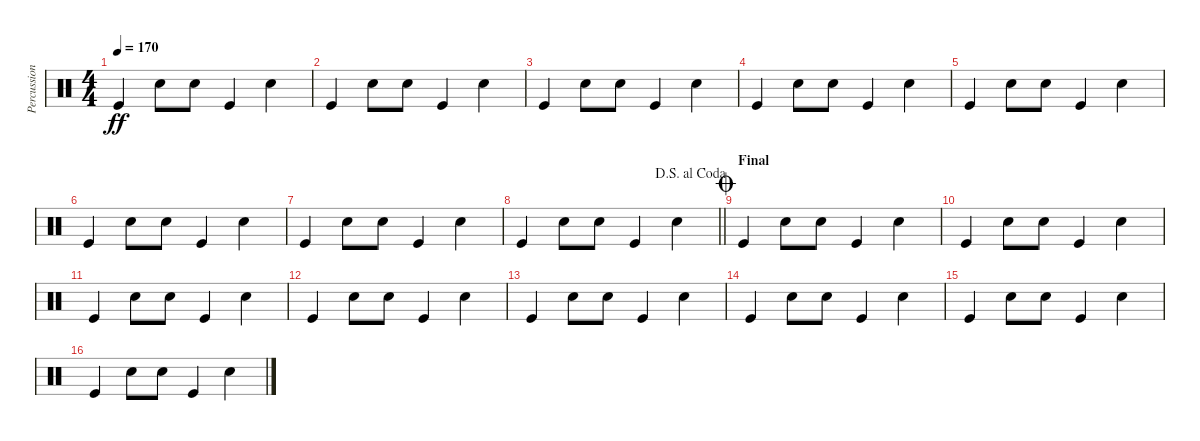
\track ("Percussions" "Percussion") {instrument percussion}
\staff {score}
\articulation defaults
\ts (4 4)
\tempo 170
\clef neutral
\ks c "Kick (hit)".4{dy ff} "Snare (hit) 2".8 "Snare (hit) 2".8 "Kick (hit)".4 "Snare (hit) 2".4
|
"Kick (hit)".4 "Snare (hit) 2".8 "Snare (hit) 2".8 "Kick (hit)".4 "Snare (hit) 2".4 |
"Kick (hit)".4 "Snare (hit) 2".8 "Snare (hit) 2".8 "Kick (hit)".4 "Snare (hit) 2".4 |
"Kick (hit)".4 "Snare (hit) 2".8 "Snare (hit) 2".8 "Kick (hit)".4 "Snare (hit) 2".4 |
"Kick (hit)".4 "Snare (hit) 2".8 "Snare (hit) 2".8 "Kick (hit)".4 "Snare (hit) 2".4 |
"Kick (hit)".4 "Snare (hit) 2".8 "Snare (hit) 2".8 "Kick (hit)".4 "Snare (hit) 2".4 |
"Kick (hit)".4 "Snare (hit) 2".8 "Snare (hit) 2".8 "Kick (hit)".4 "Snare (hit) 2".4 |
\jump dalsegnoalcoda
\barLineRight lightlight "Kick (hit)".4 "Snare (hit) 2".8 "Snare (hit) 2".8 "Kick (hit)".4 "Snare (hit) 2".4
|
\section ("" "Final")
\jump coda "Kick (hit)".4 "Snare (hit) 2".8 "Snare (hit) 2".8 "Kick (hit)".4 "Snare (hit) 2".4
|
"Kick (hit)".4 "Snare (hit) 2".8 "Snare (hit) 2".8 "Kick (hit)".4 "Snare (hit) 2".4 |
"Kick (hit)".4 "Snare (hit) 2".8 "Snare (hit) 2".8 "Kick (hit)".4 "Snare (hit) 2".4 |
"Kick (hit)".4 "Snare (hit) 2".8 "Snare (hit) 2".8 "Kick (hit)".4 "Snare (hit) 2".4 |
"Kick (hit)".4 "Snare (hit) 2".8 "Snare (hit) 2".8 "Kick (hit)".4 "Snare (hit) 2".4 |
"Kick (hit)".4 "Snare (hit) 2".8 "Snare (hit) 2".8 "Kick (hit)".4 "Snare (hit) 2".4 |
"Kick (hit)".4 "Snare (hit) 2".8 "Snare (hit) 2".8 "Kick (hit)".4 "Snare (hit) 2".4 |
"Kick (hit)".4 "Snare (hit) 2".8 "Snare (hit) 2".8 "Kick (hit)".4 "Snare (hit) 2".4
